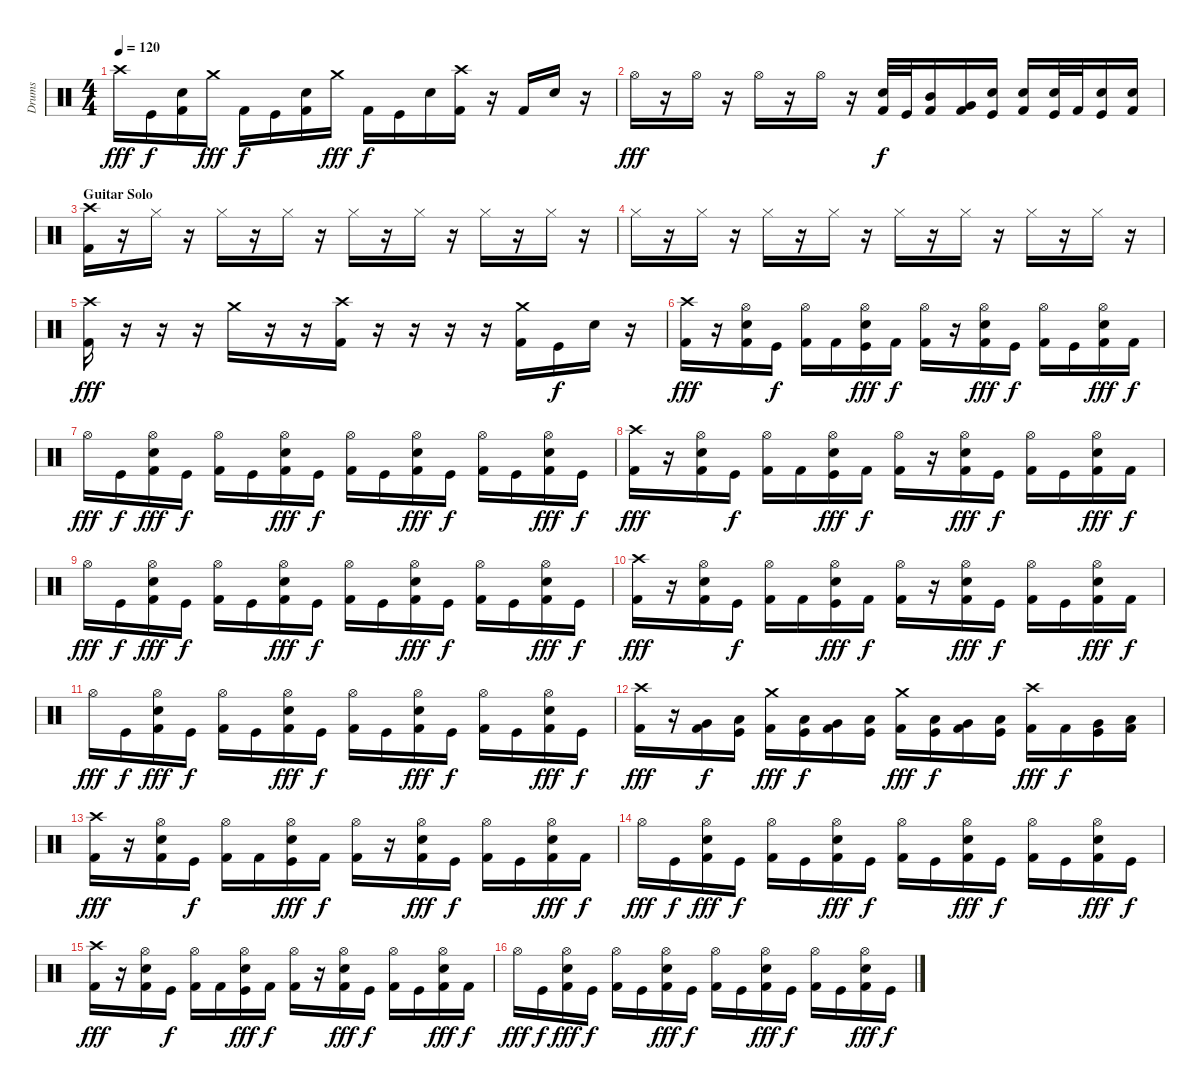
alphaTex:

\track ("Drums" "Drums") {instrument percussion}
\staff {score}
\articulation defaults
\ts (4 4)
\tempo 120
\clef neutral
\ks c "Crash high (hit)".16{dy fff} "Kick (hit)".16{dy f}
("Snare (hit) 2" "Kick (hit) 2").16 "Crash medium (hit)".16{dy fff} "Kick (hit) 2".16{dy f} "Kick (hit)".16 ("Snare (hit) 2" "Kick (hit) 2").16 "Crash medium (hit)".16{dy fff} "Kick (hit) 2".16{dy f} "Kick (hit)".16 "Snare (hit) 2".16 ("Crash high (hit)" "Kick (hit) 2").16 r.16 "Kick (hit) 2".16 "Snare (hit) 2".16 r.16 |
"Hi-Hat (open)".16{dy fff} r.16 "Hi-Hat (open)".16 r.16 "Hi-Hat (open)".16 r.16 "Hi-Hat (open)".16 r.16 ("Snare (hit) 2" "Kick (hit) 2").32{dy f} "Kick (hit)".32 ("Mid Tom (hit)" "Kick (hit) 2").16 ("Very Low Tom (hit)" "Kick (hit) 2").16 ("Snare (hit) 2" "Kick (hit)").16 ("Snare (hit) 2" "Kick (hit) 2").16 ("Snare (hit) 2" "Kick (hit)").32 "Kick (hit) 2".32 ("Snare (hit) 2" "Kick (hit)").16 ("Snare (hit) 2" "Kick (hit) 2").16 |
\section ("" "Guitar Solo")
("Crash high (hit)" "Kick (hit) 2").16 r.16 "Hi-Hat (closed)".16 r.16 "Hi-Hat (closed)".16 r.16 "Hi-Hat (closed)".16 r.16 "Hi-Hat (closed)".16 r.16 "Hi-Hat (closed)".16 r.16 "Hi-Hat (closed)".16 r.16 "Hi-Hat (closed)".16 r.16 |
"Hi-Hat (closed)".16 r.16 "Hi-Hat (closed)".16 r.16 "Hi-Hat (closed)".16 r.16 "Hi-Hat (closed)".16 r.16 "Hi-Hat (closed)".16 r.16 "Hi-Hat (closed)".16 r.16 "Hi-Hat (closed)".16 r.16 "Hi-Hat (closed)".16 r.16 |
("Crash high (hit)" "Kick (hit) 2").16{dy fff} r.16 r.16 r.16 "Crash medium (hit)".16 r.16 r.16 ("Crash high (hit)" "Kick (hit) 2").16 r.16 r.16 r.16 r.16 ("Crash medium (hit)" "Kick (hit) 2").16 "Kick (hit)".16{dy f} "Snare (hit) 2".16 r.16 |
("Crash high (hit)" "Kick (hit) 2").16{dy fff} r.16 ("Hi-Hat (open)" "Snare (hit) 2" "Kick (hit) 2").16 "Kick (hit)".16{dy f} ("Hi-Hat (open)" "Kick (hit) 2").16 "Kick (hit) 2".16 ("Hi-Hat (open)" "Snare (hit) 2" "Kick (hit)").16{dy fff} "Kick (hit) 2".16{dy f} ("Hi-Hat (open)" "Kick (hit) 2").16 r.16 ("Hi-Hat (open)" "Snare (hit) 2" "Kick (hit) 2").16{dy fff} "Kick (hit)".16{dy f} ("Hi-Hat (open)" "Kick (hit) 2").16 "Kick (hit)".16 ("Hi-Hat (open)" "Snare (hit) 2" "Kick (hit) 2").16{dy fff} "Kick (hit) 2".16{dy f} |
"Hi-Hat (open)".16{dy fff} "Kick (hit)".16{dy f} ("Hi-Hat (open)" "Snare (hit) 2" "Kick (hit) 2").16{dy fff} "Kick (hit)".16{dy f} ("Hi-Hat (open)" "Kick (hit) 2").16 "Kick (hit)".16 ("Hi-Hat (open)" "Snare (hit) 2" "Kick (hit) 2").16{dy fff} "Kick (hit)".16{dy f} ("Hi-Hat (open)" "Kick (hit) 2").16 "Kick (hit)".16 ("Hi-Hat (open)" "Snare (hit) 2" "Kick (hit) 2").16{dy fff} "Kick (hit)".16{dy f} ("Hi-Hat (open)" "Kick (hit) 2").16 "Kick (hit)".16 ("Hi-Hat (open)" "Snare (hit) 2" "Kick (hit) 2").16{dy fff} "Kick (hit)".16{dy f} |
("Crash high (hit)" "Kick (hit) 2").16{dy fff} r.16 ("Hi-Hat (open)" "Snare (hit) 2" "Kick (hit) 2").16 "Kick (hit)".16{dy f} ("Hi-Hat (open)" "Kick (hit) 2").16 "Kick (hit) 2".16 ("Hi-Hat (open)" "Snare (hit) 2" "Kick (hit)").16{dy fff} "Kick (hit) 2".16{dy f} ("Hi-Hat (open)" "Kick (hit) 2").16 r.16 ("Hi-Hat (open)" "Snare (hit) 2" "Kick (hit) 2").16{dy fff} "Kick (hit)".16{dy f} ("Hi-Hat (open)" "Kick (hit) 2").16 "Kick (hit)".16 ("Hi-Hat (open)" "Snare (hit) 2" "Kick (hit) 2").16{dy fff} "Kick (hit) 2".16{dy f} |
"Hi-Hat (open)".16{dy fff} "Kick (hit)".16{dy f} ("Hi-Hat (open)" "Snare (hit) 2" "Kick (hit) 2").16{dy fff} "Kick (hit)".16{dy f} ("Hi-Hat (open)" "Kick (hit) 2").16 "Kick (hit)".16 ("Hi-Hat (open)" "Snare (hit) 2" "Kick (hit) 2").16{dy fff} "Kick (hit)".16{dy f} ("Hi-Hat (open)" "Kick (hit) 2").16 "Kick (hit)".16 ("Hi-Hat (open)" "Snare (hit) 2" "Kick (hit) 2").16{dy fff} "Kick (hit)".16{dy f} ("Hi-Hat (open)" "Kick (hit) 2").16 "Kick (hit)".16 ("Hi-Hat (open)" "Snare (hit) 2" "Kick (hit) 2").16{dy fff} "Kick (hit)".16{dy f} |
("Crash high (hit)" "Kick (hit) 2").16{dy fff} r.16 ("Hi-Hat (open)" "Snare (hit) 2" "Kick (hit) 2").16 "Kick (hit)".16{dy f} ("Hi-Hat (open)" "Kick (hit) 2").16 "Kick (hit) 2".16 ("Hi-Hat (open)" "Snare (hit) 2" "Kick (hit)").16{dy fff} "Kick (hit) 2".16{dy f} ("Hi-Hat (open)" "Kick (hit) 2").16 r.16 ("Hi-Hat (open)" "Snare (hit) 2" "Kick (hit) 2").16{dy fff} "Kick (hit)".16{dy f} ("Hi-Hat (open)" "Kick (hit) 2").16 "Kick (hit)".16 ("Hi-Hat (open)" "Snare (hit) 2" "Kick (hit) 2").16{dy fff} "Kick (hit) 2".16{dy f} |
"Hi-Hat (open)".16{dy fff} "Kick (hit)".16{dy f} ("Hi-Hat (open)" "Snare (hit) 2" "Kick (hit) 2").16{dy fff} "Kick (hit)".16{dy f} ("Hi-Hat (open)" "Kick (hit) 2").16 "Kick (hit)".16 ("Hi-Hat (open)" "Snare (hit) 2" "Kick (hit) 2").16{dy fff} "Kick (hit)".16{dy f} ("Hi-Hat (open)" "Kick (hit) 2").16 "Kick (hit)".16 ("Hi-Hat (open)" "Snare (hit) 2" "Kick (hit) 2").16{dy fff} "Kick (hit)".16{dy f} ("Hi-Hat (open)" "Kick (hit) 2").16 "Kick (hit)".16 ("Hi-Hat (open)" "Snare (hit) 2" "Kick (hit) 2").16{dy fff} "Kick (hit)".16{dy f} |
("Crash high (hit)" "Kick (hit) 2").16{dy fff} r.16 ("Very Low Tom (hit)" "Kick (hit) 2").16{dy f} ("Low Floor Tom (hit)" "Kick (hit)").16 ("Crash medium (hit)" "Kick (hit) 2").16{dy fff} ("Low Tom (hit)" "Kick (hit)").16{dy f} ("Very Low Tom (hit)" "Kick (hit) 2").16 ("Low Floor Tom (hit)" "Kick (hit)").16 ("Crash medium (hit)" "Kick (hit) 2").16{dy fff} ("Low Tom (hit)" "Kick (hit)").16{dy f} ("Very Low Tom (hit)" "Kick (hit) 2").16 ("Low Floor Tom (hit)" "Kick (hit)").16 ("Crash high (hit)" "Kick (hit) 2").16{dy fff} "Kick (hit) 2".16{dy f} ("Very Low Tom (hit)" "Kick (hit)").16 ("Low Floor Tom (hit)" "Kick (hit) 2").16 |
("Crash high (hit)" "Kick (hit) 2").16{dy fff} r.16 ("Hi-Hat (open)" "Snare (hit) 2" "Kick (hit) 2").16 "Kick (hit)".16{dy f} ("Hi-Hat (open)" "Kick (hit) 2").16 "Kick (hit) 2".16 ("Hi-Hat (open)" "Snare (hit) 2" "Kick (hit)").16{dy fff} "Kick (hit) 2".16{dy f} ("Hi-Hat (open)" "Kick (hit) 2").16 r.16 ("Hi-Hat (open)" "Snare (hit) 2" "Kick (hit) 2").16{dy fff} "Kick (hit)".16{dy f} ("Hi-Hat (open)" "Kick (hit) 2").16 "Kick (hit)".16 ("Hi-Hat (open)" "Snare (hit) 2" "Kick (hit) 2").16{dy fff} "Kick (hit) 2".16{dy f} |
"Hi-Hat (open)".16{dy fff} "Kick (hit)".16{dy f} ("Hi-Hat (open)" "Snare (hit) 2" "Kick (hit) 2").16{dy fff} "Kick (hit)".16{dy f} ("Hi-Hat (open)" "Kick (hit) 2").16 "Kick (hit)".16 ("Hi-Hat (open)" "Snare (hit) 2" "Kick (hit) 2").16{dy fff} "Kick (hit)".16{dy f} ("Hi-Hat (open)" "Kick (hit) 2").16 "Kick (hit)".16 ("Hi-Hat (open)" "Snare (hit) 2" "Kick (hit) 2").16{dy fff} "Kick (hit)".16{dy f} ("Hi-Hat (open)" "Kick (hit) 2").16 "Kick (hit)".16 ("Hi-Hat (open)" "Snare (hit) 2" "Kick (hit) 2").16{dy fff} "Kick (hit)".16{dy f} |
("Crash high (hit)" "Kick (hit) 2").16{dy fff} r.16 ("Hi-Hat (open)" "Snare (hit) 2" "Kick (hit) 2").16 "Kick (hit)".16{dy f} ("Hi-Hat (open)" "Kick (hit) 2").16 "Kick (hit) 2".16 ("Hi-Hat (open)" "Snare (hit) 2" "Kick (hit)").16{dy fff} "Kick (hit) 2".16{dy f} ("Hi-Hat (open)" "Kick (hit) 2").16 r.16 ("Hi-Hat (open)" "Snare (hit) 2" "Kick (hit) 2").16{dy fff} "Kick (hit)".16{dy f} ("Hi-Hat (open)" "Kick (hit) 2").16 "Kick (hit)".16 ("Hi-Hat (open)" "Snare (hit) 2" "Kick (hit) 2").16{dy fff} "Kick (hit) 2".16{dy f} |
"Hi-Hat (open)".16{dy fff} "Kick (hit)".16{dy f} ("Hi-Hat (open)" "Snare (hit) 2" "Kick (hit) 2").16{dy fff} "Kick (hit)".16{dy f} ("Hi-Hat (open)" "Kick (hit) 2").16 "Kick (hit)".16 ("Hi-Hat (open)" "Snare (hit) 2" "Kick (hit) 2").16{dy fff} "Kick (hit)".16{dy f} ("Hi-Hat (open)" "Kick (hit) 2").16 "Kick (hit)".16 ("Hi-Hat (open)" "Snare (hit) 2" "Kick (hit) 2").16{dy fff} "Kick (hit)".16{dy f} ("Hi-Hat (open)" "Kick (hit) 2").16 "Kick (hit)".16 ("Hi-Hat (open)" "Snare (hit) 2" "Kick (hit) 2").16{dy fff} "Kick (hit)".16{dy f}
